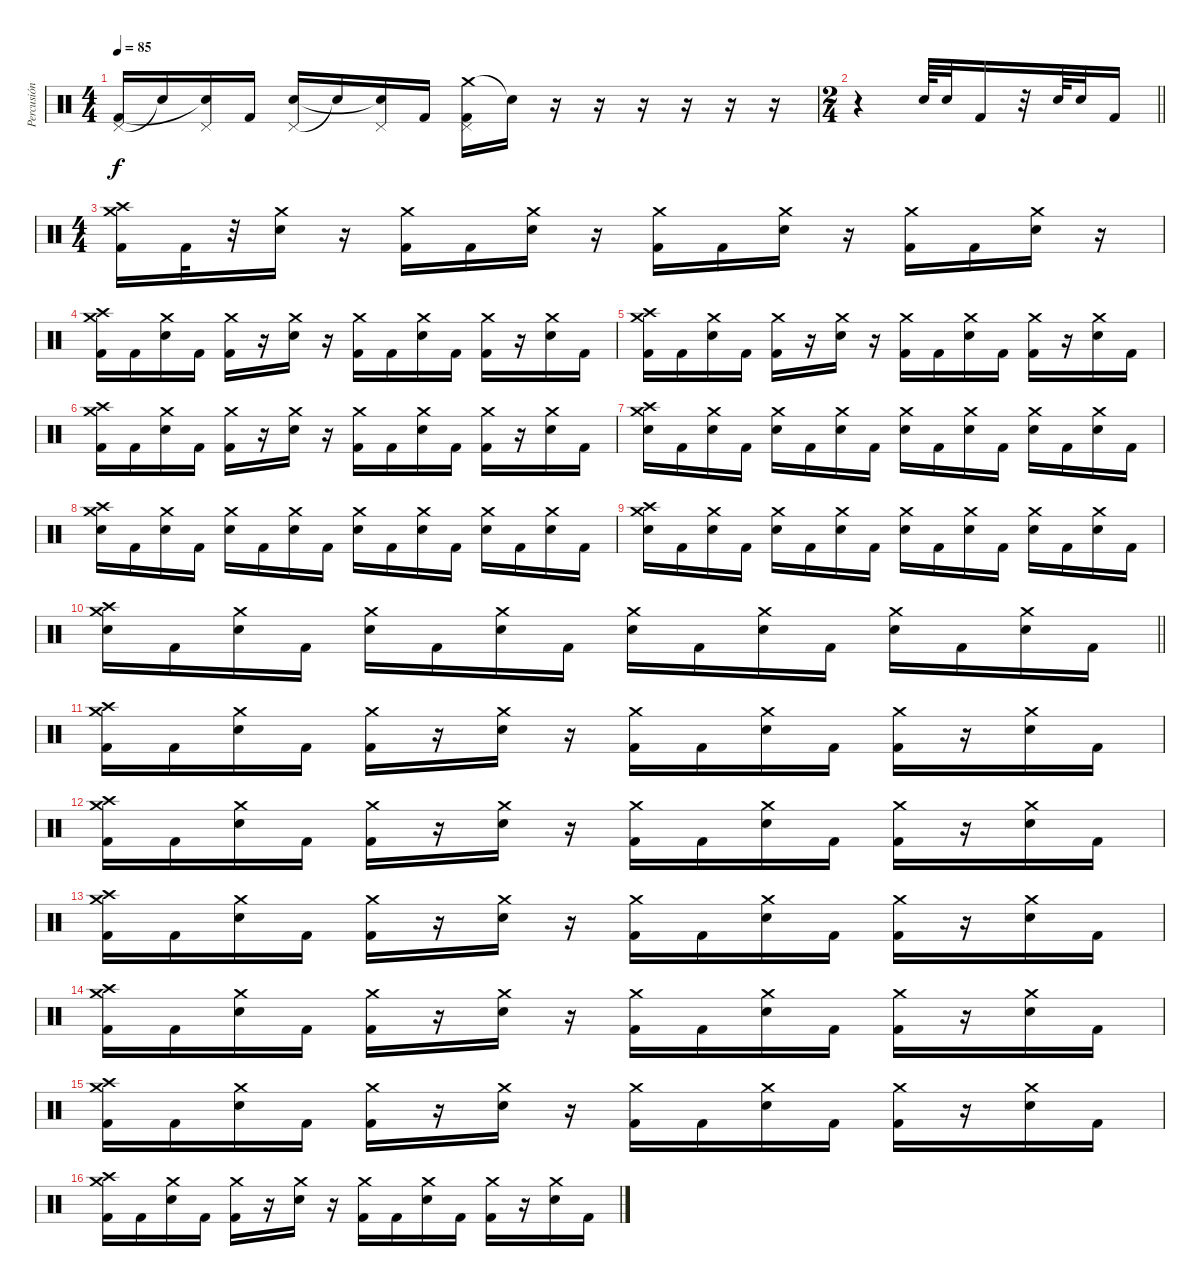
\track ("Percusión" "Percusión") {instrument percussion}
\staff {score}
\articulation defaults
\ts (4 4)
\tempo 85
\clef neutral
\ks c
("Pedal Hi-Hat (hit)" "Kick (hit) 2").16{dy f} "Snare (hit)"{t}.16 ("Pedal Hi-Hat (hit)" "Snare (hit)"{t}).16 "Kick (hit) 2".16 ("Pedal Hi-Hat (hit)" "Electric Snare (hit)").16 "Snare (hit)"{t}.16 ("Pedal Hi-Hat (hit)" "Snare (hit)"{t}).16 "Kick (hit) 2".16 ("Crash medium (hit)" "Pedal Hi-Hat (hit)" "Kick (hit) 2").16 "Snare (hit)"{t}.16 r.16 r.16 r.16 r.16 r.16 r.16 |
\ts (2 4)
\barLineRight lightlight
r.4 "Electric Snare (hit)".64 "Electric Snare (hit)".32 "Kick (hit) 2".16 r.32 "Electric Snare (hit)".64 "Electric Snare (hit)".32 "Kick (hit) 2".16 |
\ts (4 4)
("Crash high (hit)" "Crash medium (hit)" "Kick (hit) 2").16 "Kick (hit) 2".32 r.32 ("Crash medium (hit)" "Electric Snare (hit)").16 r.16 ("Crash medium (hit)" "Kick (hit) 2").16 "Kick (hit) 2".16 ("Crash medium (hit)" "Electric Snare (hit)").16 r.16 ("Crash medium (hit)" "Kick (hit) 2").16 "Kick (hit) 2".16 ("Crash medium (hit)" "Electric Snare (hit)").16 r.16 ("Crash medium (hit)" "Kick (hit) 2").16 "Kick (hit) 2".16 ("Crash medium (hit)" "Electric Snare (hit)").16 r.16 |
("Crash high (hit)" "Crash medium (hit)" "Kick (hit) 2").16 "Kick (hit) 2".16 ("Crash medium (hit)" "Electric Snare (hit)").16 "Kick (hit) 2".16 ("Crash medium (hit)" "Kick (hit) 2").16 r.16 ("Crash medium (hit)" "Electric Snare (hit)").16 r.16 ("Crash medium (hit)" "Kick (hit) 2").16 "Kick (hit) 2".16 ("Crash medium (hit)" "Electric Snare (hit)").16 "Kick (hit) 2".16 ("Crash medium (hit)" "Kick (hit) 2").16 r.16 ("Crash medium (hit)" "Electric Snare (hit)").16 "Kick (hit) 2".16 |
("Crash high (hit)" "Crash medium (hit)" "Kick (hit) 2").16 "Kick (hit) 2".16 ("Crash medium (hit)" "Electric Snare (hit)").16 "Kick (hit) 2".16 ("Crash medium (hit)" "Kick (hit) 2").16 r.16 ("Crash medium (hit)" "Electric Snare (hit)").16 r.16 ("Crash medium (hit)" "Kick (hit) 2").16 "Kick (hit) 2".16 ("Crash medium (hit)" "Electric Snare (hit)").16 "Kick (hit) 2".16 ("Crash medium (hit)" "Kick (hit) 2").16 r.16 ("Crash medium (hit)" "Electric Snare (hit)").16 "Kick (hit) 2".16 |
("Crash high (hit)" "Crash medium (hit)" "Kick (hit) 2").16 "Kick (hit) 2".16 ("Crash medium (hit)" "Electric Snare (hit)").16 "Kick (hit) 2".16 ("Crash medium (hit)" "Kick (hit) 2").16 r.16 ("Crash medium (hit)" "Electric Snare (hit)").16 r.16 ("Crash medium (hit)" "Kick (hit) 2").16 "Kick (hit) 2".16 ("Crash medium (hit)" "Electric Snare (hit)").16 "Kick (hit) 2".16 ("Crash medium (hit)" "Kick (hit) 2").16 r.16 ("Crash medium (hit)" "Electric Snare (hit)").16 "Kick (hit) 2".16 |
("Crash high (hit)" "Crash medium (hit)" "Electric Snare (hit)").16 "Kick (hit) 2".16 ("Crash medium (hit)" "Electric Snare (hit)").16 "Kick (hit) 2".16 ("Crash medium (hit)" "Electric Snare (hit)").16 "Kick (hit) 2".16 ("Crash medium (hit)" "Electric Snare (hit)").16 "Kick (hit) 2".16 ("Crash medium (hit)" "Electric Snare (hit)").16 "Kick (hit) 2".16 ("Crash medium (hit)" "Electric Snare (hit)").16 "Kick (hit) 2".16 ("Crash medium (hit)" "Electric Snare (hit)").16 "Kick (hit) 2".16 ("Crash medium (hit)" "Electric Snare (hit)").16 "Kick (hit) 2".16 |
("Crash high (hit)" "Crash medium (hit)" "Electric Snare (hit)").16 "Kick (hit) 2".16 ("Crash medium (hit)" "Electric Snare (hit)").16 "Kick (hit) 2".16 ("Crash medium (hit)" "Electric Snare (hit)").16 "Kick (hit) 2".16 ("Crash medium (hit)" "Electric Snare (hit)").16 "Kick (hit) 2".16 ("Crash medium (hit)" "Electric Snare (hit)").16 "Kick (hit) 2".16 ("Crash medium (hit)" "Electric Snare (hit)").16 "Kick (hit) 2".16 ("Crash medium (hit)" "Electric Snare (hit)").16 "Kick (hit) 2".16 ("Crash medium (hit)" "Electric Snare (hit)").16 "Kick (hit) 2".16 |
("Crash high (hit)" "Crash medium (hit)" "Electric Snare (hit)").16 "Kick (hit) 2".16 ("Crash medium (hit)" "Electric Snare (hit)").16 "Kick (hit) 2".16 ("Crash medium (hit)" "Electric Snare (hit)").16 "Kick (hit) 2".16 ("Crash medium (hit)" "Electric Snare (hit)").16 "Kick (hit) 2".16 ("Crash medium (hit)" "Electric Snare (hit)").16 "Kick (hit) 2".16 ("Crash medium (hit)" "Electric Snare (hit)").16 "Kick (hit) 2".16 ("Crash medium (hit)" "Electric Snare (hit)").16 "Kick (hit) 2".16 ("Crash medium (hit)" "Electric Snare (hit)").16 "Kick (hit) 2".16 |
\barLineRight lightlight
("Crash high (hit)" "Crash medium (hit)" "Electric Snare (hit)").16 "Kick (hit) 2".16 ("Crash medium (hit)" "Electric Snare (hit)").16 "Kick (hit) 2".16 ("Crash medium (hit)" "Electric Snare (hit)").16 "Kick (hit) 2".16 ("Crash medium (hit)" "Electric Snare (hit)").16 "Kick (hit) 2".16 ("Crash medium (hit)" "Electric Snare (hit)").16 "Kick (hit) 2".16 ("Crash medium (hit)" "Electric Snare (hit)").16 "Kick (hit) 2".16 ("Crash medium (hit)" "Electric Snare (hit)").16 "Kick (hit) 2".16 ("Crash medium (hit)" "Electric Snare (hit)").16 "Kick (hit) 2".16 |
("Crash high (hit)" "Crash medium (hit)" "Kick (hit) 2").16 "Kick (hit) 2".16 ("Crash medium (hit)" "Electric Snare (hit)").16 "Kick (hit) 2".16 ("Crash medium (hit)" "Kick (hit) 2").16 r.16 ("Crash medium (hit)" "Electric Snare (hit)").16 r.16 ("Crash medium (hit)" "Kick (hit) 2").16 "Kick (hit) 2".16 ("Crash medium (hit)" "Electric Snare (hit)").16 "Kick (hit) 2".16 ("Crash medium (hit)" "Kick (hit) 2").16 r.16 ("Crash medium (hit)" "Electric Snare (hit)").16 "Kick (hit) 2".16 |
("Crash high (hit)" "Crash medium (hit)" "Kick (hit) 2").16 "Kick (hit) 2".16 ("Crash medium (hit)" "Electric Snare (hit)").16 "Kick (hit) 2".16 ("Crash medium (hit)" "Kick (hit) 2").16 r.16 ("Crash medium (hit)" "Electric Snare (hit)").16 r.16 ("Crash medium (hit)" "Kick (hit) 2").16 "Kick (hit) 2".16 ("Crash medium (hit)" "Electric Snare (hit)").16 "Kick (hit) 2".16 ("Crash medium (hit)" "Kick (hit) 2").16 r.16 ("Crash medium (hit)" "Electric Snare (hit)").16 "Kick (hit) 2".16 |
("Crash high (hit)" "Crash medium (hit)" "Kick (hit) 2").16 "Kick (hit) 2".16 ("Crash medium (hit)" "Electric Snare (hit)").16 "Kick (hit) 2".16 ("Crash medium (hit)" "Kick (hit) 2").16 r.16 ("Crash medium (hit)" "Electric Snare (hit)").16 r.16 ("Crash medium (hit)" "Kick (hit) 2").16 "Kick (hit) 2".16 ("Crash medium (hit)" "Electric Snare (hit)").16 "Kick (hit) 2".16 ("Crash medium (hit)" "Kick (hit) 2").16 r.16 ("Crash medium (hit)" "Electric Snare (hit)").16 "Kick (hit) 2".16 |
("Crash high (hit)" "Crash medium (hit)" "Kick (hit) 2").16 "Kick (hit) 2".16 ("Crash medium (hit)" "Electric Snare (hit)").16 "Kick (hit) 2".16 ("Crash medium (hit)" "Kick (hit) 2").16 r.16 ("Crash medium (hit)" "Electric Snare (hit)").16 r.16 ("Crash medium (hit)" "Kick (hit) 2").16 "Kick (hit) 2".16 ("Crash medium (hit)" "Electric Snare (hit)").16 "Kick (hit) 2".16 ("Crash medium (hit)" "Kick (hit) 2").16 r.16 ("Crash medium (hit)" "Electric Snare (hit)").16 "Kick (hit) 2".16 |
("Crash high (hit)" "Crash medium (hit)" "Kick (hit) 2").16 "Kick (hit) 2".16 ("Crash medium (hit)" "Electric Snare (hit)").16 "Kick (hit) 2".16 ("Crash medium (hit)" "Kick (hit) 2").16 r.16 ("Crash medium (hit)" "Electric Snare (hit)").16 r.16 ("Crash medium (hit)" "Kick (hit) 2").16 "Kick (hit) 2".16 ("Crash medium (hit)" "Electric Snare (hit)").16 "Kick (hit) 2".16 ("Crash medium (hit)" "Kick (hit) 2").16 r.16 ("Crash medium (hit)" "Electric Snare (hit)").16 "Kick (hit) 2".16 |
("Crash high (hit)" "Crash medium (hit)" "Kick (hit) 2").16 "Kick (hit) 2".16 ("Crash medium (hit)" "Electric Snare (hit)").16 "Kick (hit) 2".16 ("Crash medium (hit)" "Kick (hit) 2").16 r.16 ("Crash medium (hit)" "Electric Snare (hit)").16 r.16 ("Crash medium (hit)" "Kick (hit) 2").16 "Kick (hit) 2".16 ("Crash medium (hit)" "Electric Snare (hit)").16 "Kick (hit) 2".16 ("Crash medium (hit)" "Kick (hit) 2").16 r.16 ("Crash medium (hit)" "Electric Snare (hit)").16 "Kick (hit) 2".16
